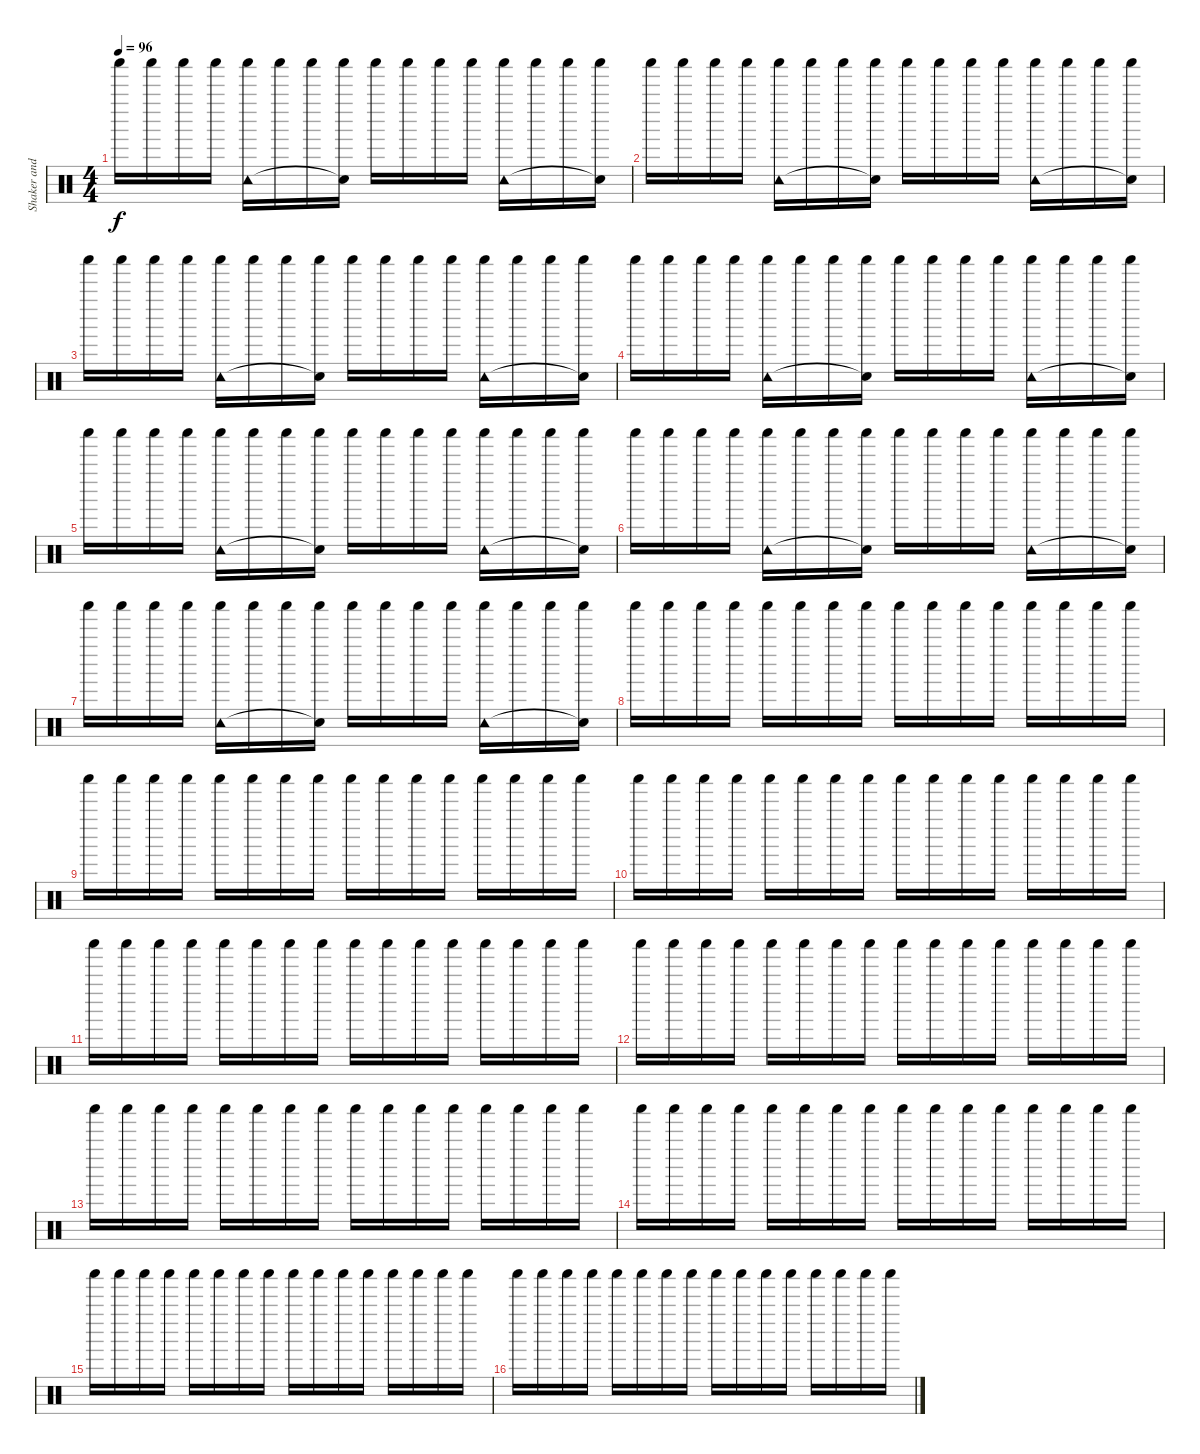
\track ("Shaker and Tambourine" "Shaker and") {instrument percussion}
\staff {score}
\articulation defaults
\ts (4 4)
\tempo 96
\clef neutral
\ks c "Shaker (hit)".16{dy f} "Shaker (hit)".16 "Shaker (hit)".16 "Shaker (hit)".16
("Shaker (hit)" "Tambourine (hit)").16 "Shaker (hit)".16 "Shaker (hit)".16 ("Shaker (hit)" "Snare (hit)"{t}).16 "Shaker (hit)".16 "Shaker (hit)".16 "Shaker (hit)".16 "Shaker (hit)".16 ("Shaker (hit)" "Tambourine (hit)").16 "Shaker (hit)".16 "Shaker (hit)".16 ("Shaker (hit)" "Snare (hit)"{t}).16 |
"Shaker (hit)".16 "Shaker (hit)".16 "Shaker (hit)".16 "Shaker (hit)".16 ("Shaker (hit)" "Tambourine (hit)").16 "Shaker (hit)".16 "Shaker (hit)".16 ("Shaker (hit)" "Snare (hit)"{t}).16 "Shaker (hit)".16 "Shaker (hit)".16 "Shaker (hit)".16 "Shaker (hit)".16 ("Shaker (hit)" "Tambourine (hit)").16 "Shaker (hit)".16 "Shaker (hit)".16 ("Shaker (hit)" "Snare (hit)"{t}).16 |
"Shaker (hit)".16 "Shaker (hit)".16 "Shaker (hit)".16 "Shaker (hit)".16 ("Shaker (hit)" "Tambourine (hit)").16 "Shaker (hit)".16 "Shaker (hit)".16 ("Shaker (hit)" "Snare (hit)"{t}).16 "Shaker (hit)".16 "Shaker (hit)".16 "Shaker (hit)".16 "Shaker (hit)".16 ("Shaker (hit)" "Tambourine (hit)").16 "Shaker (hit)".16 "Shaker (hit)".16 ("Shaker (hit)" "Snare (hit)"{t}).16 |
"Shaker (hit)".16 "Shaker (hit)".16 "Shaker (hit)".16 "Shaker (hit)".16 ("Shaker (hit)" "Tambourine (hit)").16 "Shaker (hit)".16 "Shaker (hit)".16 ("Shaker (hit)" "Snare (hit)"{t}).16 "Shaker (hit)".16 "Shaker (hit)".16 "Shaker (hit)".16 "Shaker (hit)".16 ("Shaker (hit)" "Tambourine (hit)").16 "Shaker (hit)".16 "Shaker (hit)".16 ("Shaker (hit)" "Snare (hit)"{t}).16 |
"Shaker (hit)".16 "Shaker (hit)".16 "Shaker (hit)".16 "Shaker (hit)".16 ("Shaker (hit)" "Tambourine (hit)").16 "Shaker (hit)".16 "Shaker (hit)".16 ("Shaker (hit)" "Snare (hit)"{t}).16 "Shaker (hit)".16 "Shaker (hit)".16 "Shaker (hit)".16 "Shaker (hit)".16 ("Shaker (hit)" "Tambourine (hit)").16 "Shaker (hit)".16 "Shaker (hit)".16 ("Shaker (hit)" "Snare (hit)"{t}).16 |
"Shaker (hit)".16 "Shaker (hit)".16 "Shaker (hit)".16 "Shaker (hit)".16 ("Shaker (hit)" "Tambourine (hit)").16 "Shaker (hit)".16 "Shaker (hit)".16 ("Shaker (hit)" "Snare (hit)"{t}).16 "Shaker (hit)".16 "Shaker (hit)".16 "Shaker (hit)".16 "Shaker (hit)".16 ("Shaker (hit)" "Tambourine (hit)").16 "Shaker (hit)".16 "Shaker (hit)".16 ("Shaker (hit)" "Snare (hit)"{t}).16 |
"Shaker (hit)".16 "Shaker (hit)".16 "Shaker (hit)".16 "Shaker (hit)".16 ("Shaker (hit)" "Tambourine (hit)").16 "Shaker (hit)".16 "Shaker (hit)".16 ("Shaker (hit)" "Snare (hit)"{t}).16 "Shaker (hit)".16 "Shaker (hit)".16 "Shaker (hit)".16 "Shaker (hit)".16 ("Shaker (hit)" "Tambourine (hit)").16 "Shaker (hit)".16 "Shaker (hit)".16 ("Shaker (hit)" "Snare (hit)"{t}).16 |
"Shaker (hit)".16 "Shaker (hit)".16 "Shaker (hit)".16 "Shaker (hit)".16 "Shaker (hit)".16 "Shaker (hit)".16 "Shaker (hit)".16 "Shaker (hit)".16 "Shaker (hit)".16 "Shaker (hit)".16 "Shaker (hit)".16 "Shaker (hit)".16 "Shaker (hit)".16 "Shaker (hit)".16 "Shaker (hit)".16 "Shaker (hit)".16 |
"Shaker (hit)".16 "Shaker (hit)".16 "Shaker (hit)".16 "Shaker (hit)".16 "Shaker (hit)".16 "Shaker (hit)".16 "Shaker (hit)".16 "Shaker (hit)".16 "Shaker (hit)".16 "Shaker (hit)".16 "Shaker (hit)".16 "Shaker (hit)".16 "Shaker (hit)".16 "Shaker (hit)".16 "Shaker (hit)".16 "Shaker (hit)".16 |
"Shaker (hit)".16 "Shaker (hit)".16 "Shaker (hit)".16 "Shaker (hit)".16 "Shaker (hit)".16 "Shaker (hit)".16 "Shaker (hit)".16 "Shaker (hit)".16 "Shaker (hit)".16 "Shaker (hit)".16 "Shaker (hit)".16 "Shaker (hit)".16 "Shaker (hit)".16 "Shaker (hit)".16 "Shaker (hit)".16 "Shaker (hit)".16 |
"Shaker (hit)".16 "Shaker (hit)".16 "Shaker (hit)".16 "Shaker (hit)".16 "Shaker (hit)".16 "Shaker (hit)".16 "Shaker (hit)".16 "Shaker (hit)".16 "Shaker (hit)".16 "Shaker (hit)".16 "Shaker (hit)".16 "Shaker (hit)".16 "Shaker (hit)".16 "Shaker (hit)".16 "Shaker (hit)".16 "Shaker (hit)".16 |
"Shaker (hit)".16 "Shaker (hit)".16 "Shaker (hit)".16 "Shaker (hit)".16 "Shaker (hit)".16 "Shaker (hit)".16 "Shaker (hit)".16 "Shaker (hit)".16 "Shaker (hit)".16 "Shaker (hit)".16 "Shaker (hit)".16 "Shaker (hit)".16 "Shaker (hit)".16 "Shaker (hit)".16 "Shaker (hit)".16 "Shaker (hit)".16 |
"Shaker (hit)".16 "Shaker (hit)".16 "Shaker (hit)".16 "Shaker (hit)".16 "Shaker (hit)".16 "Shaker (hit)".16 "Shaker (hit)".16 "Shaker (hit)".16 "Shaker (hit)".16 "Shaker (hit)".16 "Shaker (hit)".16 "Shaker (hit)".16 "Shaker (hit)".16 "Shaker (hit)".16 "Shaker (hit)".16 "Shaker (hit)".16 |
"Shaker (hit)".16 "Shaker (hit)".16 "Shaker (hit)".16 "Shaker (hit)".16 "Shaker (hit)".16 "Shaker (hit)".16 "Shaker (hit)".16 "Shaker (hit)".16 "Shaker (hit)".16 "Shaker (hit)".16 "Shaker (hit)".16 "Shaker (hit)".16 "Shaker (hit)".16 "Shaker (hit)".16 "Shaker (hit)".16 "Shaker (hit)".16 |
"Shaker (hit)".16 "Shaker (hit)".16 "Shaker (hit)".16 "Shaker (hit)".16 "Shaker (hit)".16 "Shaker (hit)".16 "Shaker (hit)".16 "Shaker (hit)".16 "Shaker (hit)".16 "Shaker (hit)".16 "Shaker (hit)".16 "Shaker (hit)".16 "Shaker (hit)".16 "Shaker (hit)".16 "Shaker (hit)".16 "Shaker (hit)".16 |
"Shaker (hit)".16 "Shaker (hit)".16 "Shaker (hit)".16 "Shaker (hit)".16 "Shaker (hit)".16 "Shaker (hit)".16 "Shaker (hit)".16 "Shaker (hit)".16 "Shaker (hit)".16 "Shaker (hit)".16 "Shaker (hit)".16 "Shaker (hit)".16 "Shaker (hit)".16 "Shaker (hit)".16 "Shaker (hit)".16 "Shaker (hit)".16
